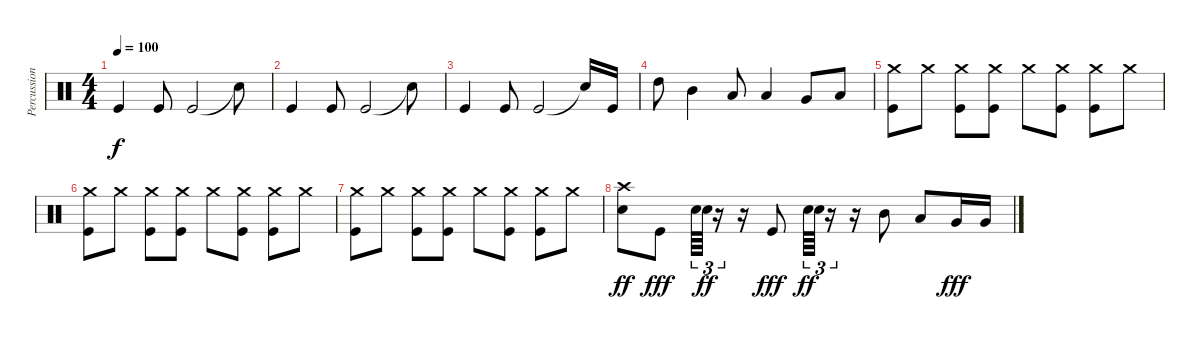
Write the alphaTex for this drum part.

\track ("Percussion" "Percussion") {instrument percussion}
\staff {score}
\articulation defaults
\ts (4 4)
\tempo 100
\clef neutral
\ks c "Kick (hit)".4{dy f} "Kick (hit)".8 "Kick (hit)".2 "Snare (hit)"{t}.8
|
"Kick (hit)".4 "Kick (hit)".8 "Kick (hit)".2 "Snare (hit)"{t}.8 |
"Kick (hit)".4 "Kick (hit)".8 "Kick (hit)".2 "Snare (hit)"{t}.16 "Kick (hit)".16 |
"High Tom (hit)".8 "Mid Tom (hit)".4 "Low Tom (hit)".8 "Low Tom (hit)".4 "Very Low Tom (hit)".8 "Low Floor Tom (hit)".8 |
("Crash medium (hit)" "Kick (hit)").8 "Crash medium (hit)".8 ("Crash medium (hit)" "Kick (hit)").8 ("Crash medium (hit)" "Kick (hit)").8 "Crash medium (hit)".8 ("Crash medium (hit)" "Kick (hit)").8 ("Crash medium (hit)" "Kick (hit)").8 "Crash medium (hit)".8 |
("Crash medium (hit)" "Kick (hit)").8 "Crash medium (hit)".8 ("Crash medium (hit)" "Kick (hit)").8 ("Crash medium (hit)" "Kick (hit)").8 "Crash medium (hit)".8 ("Crash medium (hit)" "Kick (hit)").8 ("Crash medium (hit)" "Kick (hit)").8 "Crash medium (hit)".8 |
("Crash medium (hit)" "Kick (hit)").8 "Crash medium (hit)".8 ("Crash medium (hit)" "Kick (hit)").8 ("Crash medium (hit)" "Kick (hit)").8 "Crash medium (hit)".8 ("Crash medium (hit)" "Kick (hit)").8 ("Crash medium (hit)" "Kick (hit)").8 "Crash medium (hit)".8 |
("Crash high (hit)" "Electric Snare (hit)").8{dy ff} "Kick (hit)".8{dy fff} "Electric Snare (hit)".64{tu (3 2)} "Electric Snare (hit)".64{tu (3 2) dy ff} r.16{tu (3 2)} r.16 "Kick (hit)".8{dy fff} "Electric Snare (hit)".64{tu (3 2) dy ff} "Electric Snare (hit)".64{tu (3 2)} r.16{tu (3 2)} r.16 "Mid Tom (hit)".8 "Low Tom (hit)".8 "Very Low Tom (hit)".16{dy fff} "Very Low Tom (hit)".16
